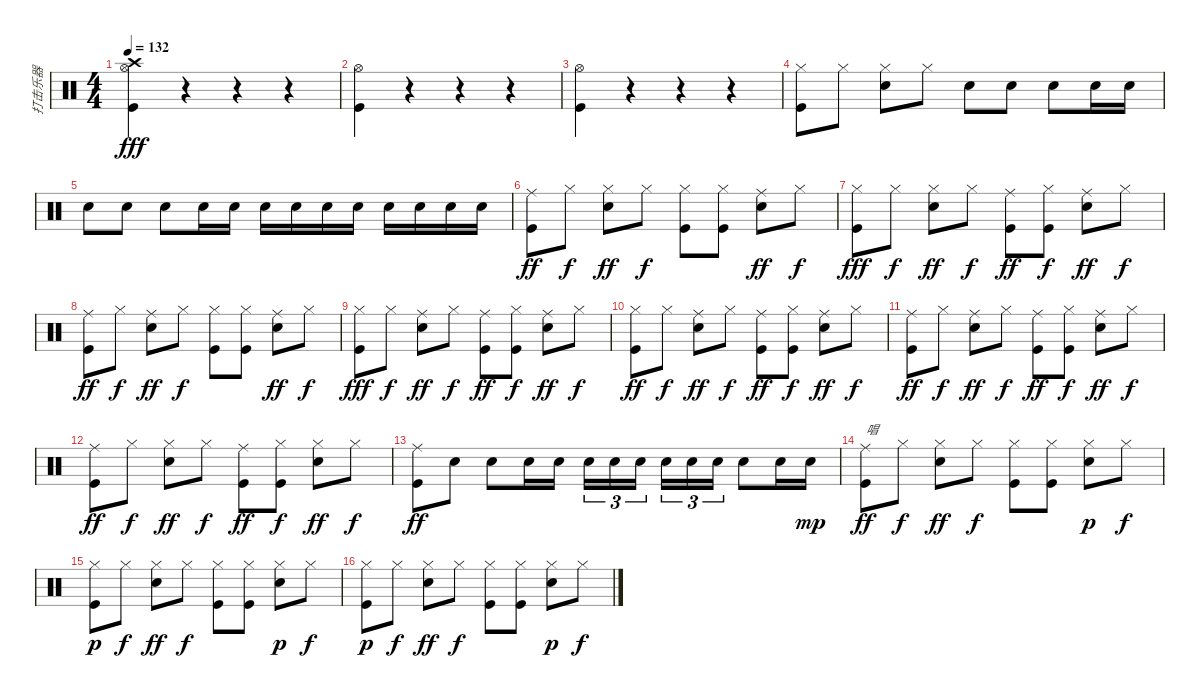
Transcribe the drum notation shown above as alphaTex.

\track ("打击乐器" "打击乐器") {instrument percussion}
\staff {score}
\articulation defaults
\ts (4 4)
\tempo 132
\clef neutral
\ks c
("Crash high (hit)" "Hi-Hat (open)" "Kick (hit)").4{dy fff} r.4 r.4 r.4 |
("Hi-Hat (open)" "Kick (hit)").4 r.4 r.4 r.4 |
("Hi-Hat (open)" "Kick (hit)").4 r.4 r.4 r.4 |
("Hi-Hat (closed)" "Kick (hit)").8 "Hi-Hat (closed)".8 ("Hi-Hat (closed)" "Snare (hit) 2").8 "Hi-Hat (closed)".8 "Snare (hit) 2".8 "Snare (hit) 2".8 "Snare (hit) 2".8 "Snare (hit) 2".16 "Snare (hit) 2".16 |
"Snare (hit) 2".8 "Snare (hit) 2".8 "Snare (hit) 2".8 "Snare (hit) 2".16 "Snare (hit) 2".16 "Snare (hit) 2".16 "Snare (hit) 2".16 "Snare (hit) 2".16 "Snare (hit) 2".16 "Snare (hit) 2".16 "Snare (hit) 2".16 "Snare (hit) 2".16 "Snare (hit) 2".16 |
("Ride (middle)" "Kick (hit)").8{dy ff} "Hi-Hat (closed)".8{dy f} ("Hi-Hat (closed)" "Snare (hit) 2").8{dy ff} "Hi-Hat (closed)".8{dy f} ("Hi-Hat (closed)" "Kick (hit)").8 ("Hi-Hat (closed)" "Kick (hit)").8 ("Ride (middle)" "Snare (hit) 2").8{dy ff} "Hi-Hat (closed)".8{dy f} |
("Hi-Hat (closed)" "Kick (hit)").8{dy fff} "Hi-Hat (closed)".8{dy f} ("Hi-Hat (closed)" "Snare (hit) 2").8{dy ff} "Hi-Hat (closed)".8{dy f} ("Ride (middle)" "Kick (hit)").8{dy ff} ("Hi-Hat (closed)" "Kick (hit)").8{dy f} ("Ride (middle)" "Snare (hit) 2").8{dy ff} "Hi-Hat (closed)".8{dy f} |
("Ride (middle)" "Kick (hit)").8{dy ff} "Hi-Hat (closed)".8{dy f} ("Ride (middle)" "Snare (hit) 2").8{dy ff} "Hi-Hat (closed)".8{dy f} ("Hi-Hat (closed)" "Kick (hit)").8 ("Hi-Hat (closed)" "Kick (hit)").8 ("Ride (middle)" "Snare (hit) 2").8{dy ff} "Hi-Hat (closed)".8{dy f} |
("Hi-Hat (closed)" "Kick (hit)").8{dy fff} "Hi-Hat (closed)".8{dy f} ("Ride (middle)" "Snare (hit) 2").8{dy ff} "Hi-Hat (closed)".8{dy f} ("Ride (middle)" "Kick (hit)").8{dy ff} ("Hi-Hat (closed)" "Kick (hit)").8{dy f} ("Ride (middle)" "Snare (hit) 2").8{dy ff} "Hi-Hat (closed)".8{dy f} |
("Hi-Hat (closed)" "Kick (hit)").8{dy ff} "Hi-Hat (closed)".8{dy f} ("Ride (middle)" "Snare (hit) 2").8{dy ff} "Hi-Hat (closed)".8{dy f} ("Ride (middle)" "Kick (hit)").8{dy ff} ("Hi-Hat (closed)" "Kick (hit)").8{dy f} ("Ride (middle)" "Snare (hit) 2").8{dy ff} "Hi-Hat (closed)".8{dy f} |
("Ride (middle)" "Kick (hit)").8{dy ff} "Hi-Hat (closed)".8{dy f} ("Ride (middle)" "Snare (hit) 2").8{dy ff} "Hi-Hat (closed)".8{dy f} ("Ride (middle)" "Kick (hit)").8{dy ff} ("Hi-Hat (closed)" "Kick (hit)").8{dy f} ("Ride (middle)" "Snare (hit) 2").8{dy ff} "Hi-Hat (closed)".8{dy f} |
("Ride (middle)" "Kick (hit)").8{dy ff} "Hi-Hat (closed)".8{dy f} ("Hi-Hat (closed)" "Snare (hit) 2").8{dy ff} "Hi-Hat (closed)".8{dy f} ("Ride (middle)" "Kick (hit)").8{dy ff} ("Hi-Hat (closed)" "Kick (hit)").8{dy f} ("Hi-Hat (closed)" "Snare (hit) 2").8{dy ff} "Hi-Hat (closed)".8{dy f} |
("Ride (middle)" "Kick (hit)").8{dy ff} "Snare (hit) 2".8 "Snare (hit) 2".8 "Snare (hit) 2".16 "Snare (hit) 2".16 "Snare (hit) 2".16{tu (3 2)} "Snare (hit) 2".16{tu (3 2)} "Snare (hit) 2".16{tu (3 2) beam splitsecondary} "Snare (hit) 2".16{tu (3 2)} "Snare (hit) 2".16{tu (3 2)} "Snare (hit) 2".16{tu (3 2)} "Snare (hit) 2".8 "Snare (hit) 2".16 "Snare (hit) 2".16{dy mp} |
("Ride (middle)" "Kick (hit)").8{txt "唱" dy ff} "Hi-Hat (closed)".8{dy f} ("Hi-Hat (closed)" "Snare (hit) 2").8{dy ff} "Hi-Hat (closed)".8{dy f} ("Hi-Hat (closed)" "Kick (hit)").8 ("Hi-Hat (closed)" "Kick (hit)").8 ("Hi-Hat (closed)" "Snare (hit) 2").8{dy p} "Hi-Hat (closed)".8{dy f} |
("Hi-Hat (closed)" "Kick (hit)").8{dy p} "Hi-Hat (closed)".8{dy f} ("Hi-Hat (closed)" "Snare (hit) 2").8{dy ff} "Hi-Hat (closed)".8{dy f} ("Hi-Hat (closed)" "Kick (hit)").8 ("Hi-Hat (closed)" "Kick (hit)").8 ("Hi-Hat (closed)" "Snare (hit) 2").8{dy p} "Hi-Hat (closed)".8{dy f} |
("Hi-Hat (closed)" "Kick (hit)").8{dy p} "Hi-Hat (closed)".8{dy f} ("Hi-Hat (closed)" "Snare (hit) 2").8{dy ff} "Hi-Hat (closed)".8{dy f} ("Hi-Hat (closed)" "Kick (hit)").8 ("Hi-Hat (closed)" "Kick (hit)").8 ("Hi-Hat (closed)" "Snare (hit) 2").8{dy p} "Hi-Hat (closed)".8{dy f}
